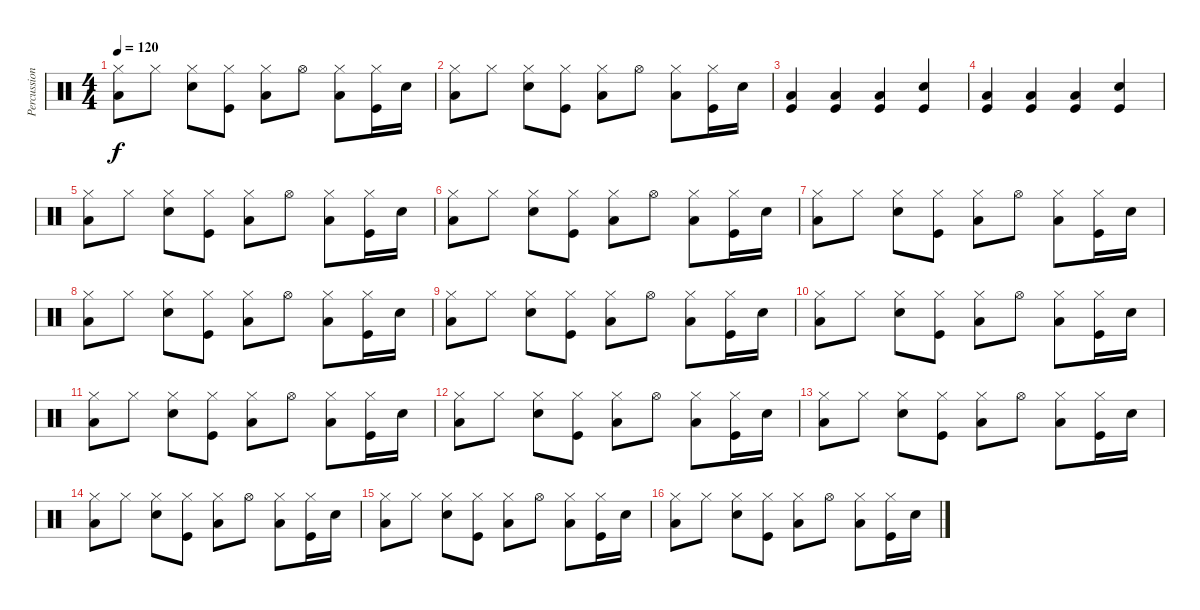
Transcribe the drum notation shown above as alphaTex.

\track ("Percussion" "Percussion") {instrument percussion}
\staff {score}
\articulation defaults
\ts (4 4)
\tempo 120
\clef neutral
\ks c
("Hi-Hat (closed)" "Low Tom (hit)").8{dy f} "Hi-Hat (closed)".8 ("Hi-Hat (closed)" "Snare (hit) 2").8 ("Hi-Hat (closed)" "Kick (hit)").8 ("Hi-Hat (closed)" "Low Tom (hit)").8 "Hi-Hat (open)".8 ("Hi-Hat (closed)" "Low Tom (hit)").8 ("Hi-Hat (closed)" "Kick (hit)").16 "Snare (hit) 2".16 |
("Hi-Hat (closed)" "Low Tom (hit)").8 "Hi-Hat (closed)".8 ("Hi-Hat (closed)" "Snare (hit) 2").8 ("Hi-Hat (closed)" "Kick (hit)").8 ("Hi-Hat (closed)" "Low Tom (hit)").8 "Hi-Hat (open)".8 ("Hi-Hat (closed)" "Low Tom (hit)").8 ("Hi-Hat (closed)" "Kick (hit)").16 "Snare (hit) 2".16 |
("Low Floor Tom (hit)" "Kick (hit)").4 ("Low Floor Tom (hit)" "Kick (hit)").4 ("Low Tom (hit)" "Kick (hit)").4 ("Snare (hit) 2" "Kick (hit)").4 |
("Low Floor Tom (hit)" "Kick (hit)").4 ("Low Floor Tom (hit)" "Kick (hit)").4 ("Low Tom (hit)" "Kick (hit)").4 ("Snare (hit) 2" "Kick (hit)").4 |
("Hi-Hat (closed)" "Low Tom (hit)").8 "Hi-Hat (closed)".8 ("Hi-Hat (closed)" "Snare (hit) 2").8 ("Hi-Hat (closed)" "Kick (hit)").8 ("Hi-Hat (closed)" "Low Tom (hit)").8 "Hi-Hat (open)".8 ("Hi-Hat (closed)" "Low Tom (hit)").8 ("Hi-Hat (closed)" "Kick (hit)").16 "Snare (hit) 2".16 |
("Hi-Hat (closed)" "Low Tom (hit)").8 "Hi-Hat (closed)".8 ("Hi-Hat (closed)" "Snare (hit) 2").8 ("Hi-Hat (closed)" "Kick (hit)").8 ("Hi-Hat (closed)" "Low Tom (hit)").8 "Hi-Hat (open)".8 ("Hi-Hat (closed)" "Low Tom (hit)").8 ("Hi-Hat (closed)" "Kick (hit)").16 "Snare (hit) 2".16 |
("Hi-Hat (closed)" "Low Tom (hit)").8 "Hi-Hat (closed)".8 ("Hi-Hat (closed)" "Snare (hit) 2").8 ("Hi-Hat (closed)" "Kick (hit)").8 ("Hi-Hat (closed)" "Low Tom (hit)").8 "Hi-Hat (open)".8 ("Hi-Hat (closed)" "Low Tom (hit)").8 ("Hi-Hat (closed)" "Kick (hit)").16 "Snare (hit) 2".16 |
("Hi-Hat (closed)" "Low Tom (hit)").8 "Hi-Hat (closed)".8 ("Hi-Hat (closed)" "Snare (hit) 2").8 ("Hi-Hat (closed)" "Kick (hit)").8 ("Hi-Hat (closed)" "Low Tom (hit)").8 "Hi-Hat (open)".8 ("Hi-Hat (closed)" "Low Tom (hit)").8 ("Hi-Hat (closed)" "Kick (hit)").16 "Snare (hit) 2".16 |
("Hi-Hat (closed)" "Low Tom (hit)").8 "Hi-Hat (closed)".8 ("Hi-Hat (closed)" "Snare (hit) 2").8 ("Hi-Hat (closed)" "Kick (hit)").8 ("Hi-Hat (closed)" "Low Tom (hit)").8 "Hi-Hat (open)".8 ("Hi-Hat (closed)" "Low Tom (hit)").8 ("Hi-Hat (closed)" "Kick (hit)").16 "Snare (hit) 2".16 |
("Hi-Hat (closed)" "Low Tom (hit)").8 "Hi-Hat (closed)".8 ("Hi-Hat (closed)" "Snare (hit) 2").8 ("Hi-Hat (closed)" "Kick (hit)").8 ("Hi-Hat (closed)" "Low Tom (hit)").8 "Hi-Hat (open)".8 ("Hi-Hat (closed)" "Low Tom (hit)").8 ("Hi-Hat (closed)" "Kick (hit)").16 "Snare (hit) 2".16 |
("Hi-Hat (closed)" "Low Tom (hit)").8 "Hi-Hat (closed)".8 ("Hi-Hat (closed)" "Snare (hit) 2").8 ("Hi-Hat (closed)" "Kick (hit)").8 ("Hi-Hat (closed)" "Low Tom (hit)").8 "Hi-Hat (open)".8 ("Hi-Hat (closed)" "Low Tom (hit)").8 ("Hi-Hat (closed)" "Kick (hit)").16 "Snare (hit) 2".16 |
("Hi-Hat (closed)" "Low Tom (hit)").8 "Hi-Hat (closed)".8 ("Hi-Hat (closed)" "Snare (hit) 2").8 ("Hi-Hat (closed)" "Kick (hit)").8 ("Hi-Hat (closed)" "Low Tom (hit)").8 "Hi-Hat (open)".8 ("Hi-Hat (closed)" "Low Tom (hit)").8 ("Hi-Hat (closed)" "Kick (hit)").16 "Snare (hit) 2".16 |
("Hi-Hat (closed)" "Low Tom (hit)").8 "Hi-Hat (closed)".8 ("Hi-Hat (closed)" "Snare (hit) 2").8 ("Hi-Hat (closed)" "Kick (hit)").8 ("Hi-Hat (closed)" "Low Tom (hit)").8 "Hi-Hat (open)".8 ("Hi-Hat (closed)" "Low Tom (hit)").8 ("Hi-Hat (closed)" "Kick (hit)").16 "Snare (hit) 2".16 |
("Hi-Hat (closed)" "Low Tom (hit)").8 "Hi-Hat (closed)".8 ("Hi-Hat (closed)" "Snare (hit) 2").8 ("Hi-Hat (closed)" "Kick (hit)").8 ("Hi-Hat (closed)" "Low Tom (hit)").8 "Hi-Hat (open)".8 ("Hi-Hat (closed)" "Low Tom (hit)").8 ("Hi-Hat (closed)" "Kick (hit)").16 "Snare (hit) 2".16 |
("Hi-Hat (closed)" "Low Tom (hit)").8 "Hi-Hat (closed)".8 ("Hi-Hat (closed)" "Snare (hit) 2").8 ("Hi-Hat (closed)" "Kick (hit)").8 ("Hi-Hat (closed)" "Low Tom (hit)").8 "Hi-Hat (open)".8 ("Hi-Hat (closed)" "Low Tom (hit)").8 ("Hi-Hat (closed)" "Kick (hit)").16 "Snare (hit) 2".16 |
("Hi-Hat (closed)" "Low Tom (hit)").8 "Hi-Hat (closed)".8 ("Hi-Hat (closed)" "Snare (hit) 2").8 ("Hi-Hat (closed)" "Kick (hit)").8 ("Hi-Hat (closed)" "Low Tom (hit)").8 "Hi-Hat (open)".8 ("Hi-Hat (closed)" "Low Tom (hit)").8 ("Hi-Hat (closed)" "Kick (hit)").16 "Snare (hit) 2".16
